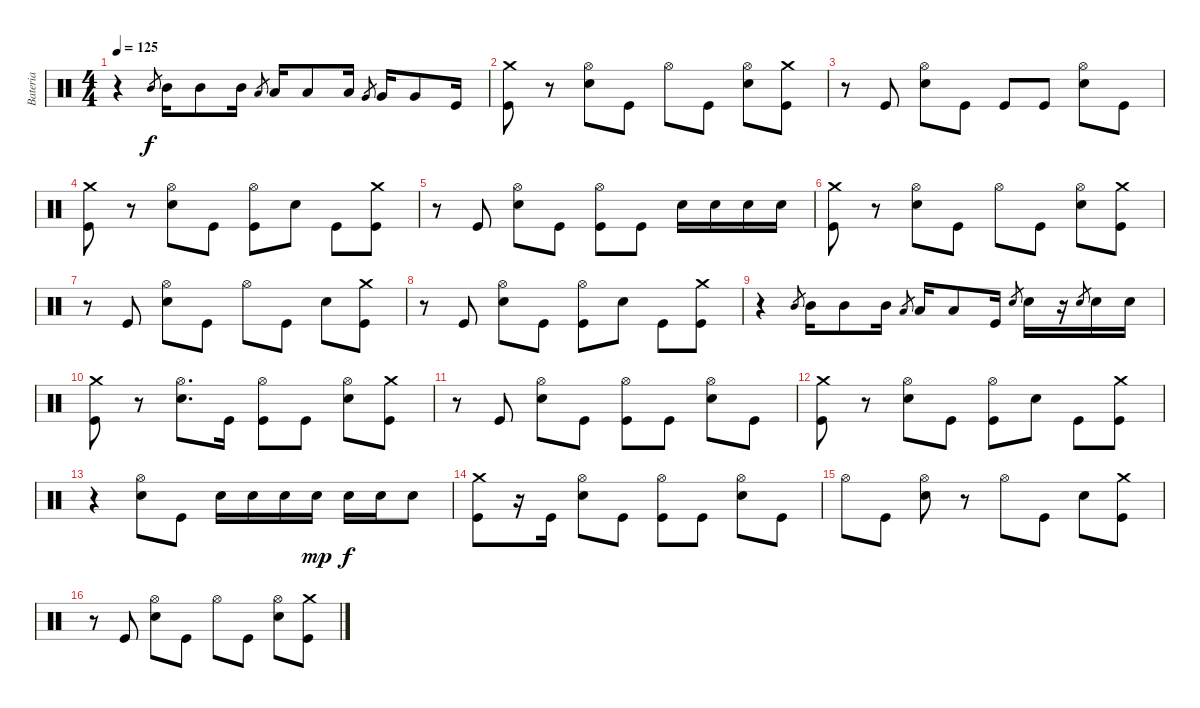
\track ("Bateria" "Bateria") {instrument percussion}
\staff {score}
\articulation defaults
\ts (4 4)
\tempo 125
\clef neutral
\ks c
r.4{dy f} "Mid Tom (hit)".8{gr} "Mid Tom (hit)".16 "Mid Tom (hit)".8 "Mid Tom (hit)".16 "Low Tom (hit)".8{gr} "Low Tom (hit)".16 "Low Tom (hit)".8 "Low Tom (hit)".16 "Very Low Tom (hit)".8{gr} "Very Low Tom (hit)".16 "Very Low Tom (hit)".8 "Kick (hit)".16 |
("Crash medium (hit)" "Kick (hit)").8 r.8 ("Hi-Hat (open)" "Electric Snare (hit)").8 "Kick (hit)".8 "Hi-Hat (open)".8 "Kick (hit)".8 ("Hi-Hat (open)" "Electric Snare (hit)").8 ("Crash medium (hit)" "Kick (hit)").8 |
r.8 "Kick (hit)".8 ("Hi-Hat (open)" "Electric Snare (hit)").8 "Kick (hit)".8 "Kick (hit)".8 "Kick (hit)".8 ("Hi-Hat (open)" "Electric Snare (hit)").8 "Kick (hit)".8 |
("Crash medium (hit)" "Kick (hit)").8 r.8 ("Hi-Hat (open)" "Electric Snare (hit)").8 "Kick (hit)".8 ("Hi-Hat (open)" "Kick (hit)").8 "Electric Snare (hit)".8 "Kick (hit)".8 ("Crash medium (hit)" "Kick (hit)").8 |
r.8 "Kick (hit)".8 ("Hi-Hat (open)" "Electric Snare (hit)").8 "Kick (hit)".8 ("Hi-Hat (open)" "Kick (hit)").8 "Kick (hit)".8 "Electric Snare (hit)".16 "Electric Snare (hit)".16 "Electric Snare (hit)".16 "Electric Snare (hit)".16 |
("Crash medium (hit)" "Kick (hit)").8 r.8 ("Hi-Hat (open)" "Electric Snare (hit)").8 "Kick (hit)".8 "Hi-Hat (open)".8 "Kick (hit)".8 ("Hi-Hat (open)" "Electric Snare (hit)").8 ("Crash medium (hit)" "Kick (hit)").8 |
r.8 "Kick (hit)".8 ("Hi-Hat (open)" "Electric Snare (hit)").8 "Kick (hit)".8 "Hi-Hat (open)".8 "Kick (hit)".8 "Electric Snare (hit)".8 ("Crash medium (hit)" "Kick (hit)").8 |
r.8 "Kick (hit)".8 ("Hi-Hat (open)" "Electric Snare (hit)").8 "Kick (hit)".8 ("Hi-Hat (open)" "Kick (hit)").8 "Electric Snare (hit)".8 "Kick (hit)".8 ("Crash medium (hit)" "Kick (hit)").8 |
r.4 "Mid Tom (hit)".8{gr} "Mid Tom (hit)".16 "Mid Tom (hit)".8 "Mid Tom (hit)".16 "Low Tom (hit)".8{gr} "Low Tom (hit)".16 "Low Tom (hit)".8 "Kick (hit)".16 "Electric Snare (hit)".8{gr} "Electric Snare (hit)".16 r.16 "Electric Snare (hit)".8{gr} "Electric Snare (hit)".16 "Electric Snare (hit)".16 |
("Crash medium (hit)" "Kick (hit)").8 r.8 ("Hi-Hat (open)" "Electric Snare (hit)").8{d} "Kick (hit)".16 ("Hi-Hat (open)" "Kick (hit)").8 "Kick (hit)".8 ("Hi-Hat (open)" "Electric Snare (hit)").8 ("Crash medium (hit)" "Kick (hit)").8 |
r.8 "Kick (hit)".8 ("Hi-Hat (open)" "Electric Snare (hit)").8 "Kick (hit)".8 ("Hi-Hat (open)" "Kick (hit)").8 "Kick (hit)".8 ("Hi-Hat (open)" "Electric Snare (hit)").8 "Kick (hit)".8 |
("Crash medium (hit)" "Kick (hit)").8 r.8 ("Hi-Hat (open)" "Electric Snare (hit)").8 "Kick (hit)".8 ("Hi-Hat (open)" "Kick (hit)").8 "Electric Snare (hit)".8 "Kick (hit)".8 ("Crash medium (hit)" "Kick (hit)").8 |
r.4 ("Hi-Hat (open)" "Electric Snare (hit)").8 "Kick (hit)".8 "Electric Snare (hit)".16 "Electric Snare (hit)".16 "Electric Snare (hit)".16 "Electric Snare (hit)".16{dy mp} "Electric Snare (hit)".16{dy f} "Electric Snare (hit)".16 "Electric Snare (hit)".8 |
("Crash medium (hit)" "Kick (hit)").8 r.16 "Kick (hit)".16 ("Hi-Hat (open)" "Electric Snare (hit)").8 "Kick (hit)".8 ("Hi-Hat (open)" "Kick (hit)").8 "Kick (hit)".8 ("Hi-Hat (open)" "Electric Snare (hit)").8 "Kick (hit)".8 |
"Hi-Hat (open)".8 "Kick (hit)".8 ("Hi-Hat (open)" "Electric Snare (hit)").8 r.8 "Hi-Hat (open)".8 "Kick (hit)".8 "Electric Snare (hit)".8 ("Crash medium (hit)" "Kick (hit)").8 |
r.8 "Kick (hit)".8 ("Hi-Hat (open)" "Electric Snare (hit)").8 "Kick (hit)".8 "Hi-Hat (open)".8 "Kick (hit)".8 ("Hi-Hat (open)" "Electric Snare (hit)").8 ("Crash medium (hit)" "Kick (hit)").8
